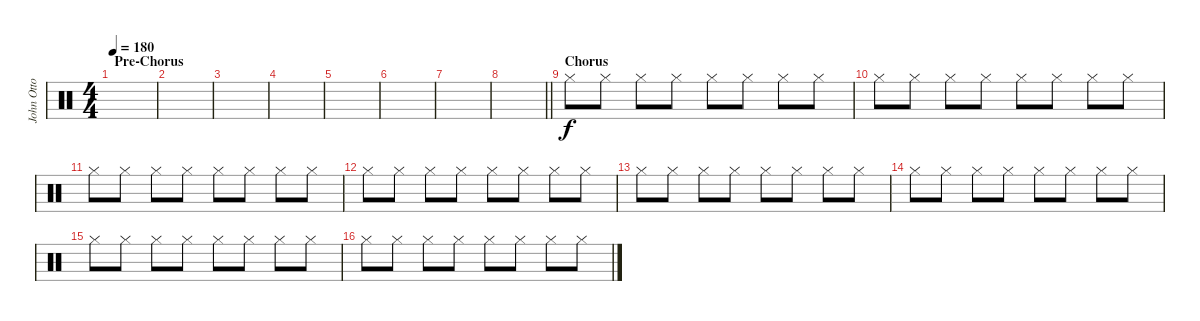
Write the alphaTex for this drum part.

\track ("John Otto" "John Otto") {instrument percussion}
\staff {score}
\articulation defaults
\ts (4 4)
\section ("" "Pre-Chorus")
\tempo 180
\clef neutral
\ks c
|
|
|
|
|
|
|
\barLineRight lightlight
|
\section ("" "Chorus")
"Hi-Hat (closed)".8 "Hi-Hat (closed)".8 "Hi-Hat (closed)".8 "Hi-Hat (closed)".8 "Hi-Hat (closed)".8 "Hi-Hat (closed)".8 "Hi-Hat (closed)".8 "Hi-Hat (closed)".8 |
"Hi-Hat (closed)".8 "Hi-Hat (closed)".8 "Hi-Hat (closed)".8 "Hi-Hat (closed)".8 "Hi-Hat (closed)".8 "Hi-Hat (closed)".8 "Hi-Hat (closed)".8 "Hi-Hat (closed)".8 |
"Hi-Hat (closed)".8 "Hi-Hat (closed)".8 "Hi-Hat (closed)".8 "Hi-Hat (closed)".8 "Hi-Hat (closed)".8 "Hi-Hat (closed)".8 "Hi-Hat (closed)".8 "Hi-Hat (closed)".8 |
"Hi-Hat (closed)".8 "Hi-Hat (closed)".8 "Hi-Hat (closed)".8 "Hi-Hat (closed)".8 "Hi-Hat (closed)".8 "Hi-Hat (closed)".8 "Hi-Hat (closed)".8 "Hi-Hat (closed)".8 |
"Hi-Hat (closed)".8 "Hi-Hat (closed)".8 "Hi-Hat (closed)".8 "Hi-Hat (closed)".8 "Hi-Hat (closed)".8 "Hi-Hat (closed)".8 "Hi-Hat (closed)".8 "Hi-Hat (closed)".8 |
"Hi-Hat (closed)".8 "Hi-Hat (closed)".8 "Hi-Hat (closed)".8 "Hi-Hat (closed)".8 "Hi-Hat (closed)".8 "Hi-Hat (closed)".8 "Hi-Hat (closed)".8 "Hi-Hat (closed)".8 |
"Hi-Hat (closed)".8 "Hi-Hat (closed)".8 "Hi-Hat (closed)".8 "Hi-Hat (closed)".8 "Hi-Hat (closed)".8 "Hi-Hat (closed)".8 "Hi-Hat (closed)".8 "Hi-Hat (closed)".8 |
"Hi-Hat (closed)".8 "Hi-Hat (closed)".8 "Hi-Hat (closed)".8 "Hi-Hat (closed)".8 "Hi-Hat (closed)".8 "Hi-Hat (closed)".8 "Hi-Hat (closed)".8 "Hi-Hat (closed)".8
